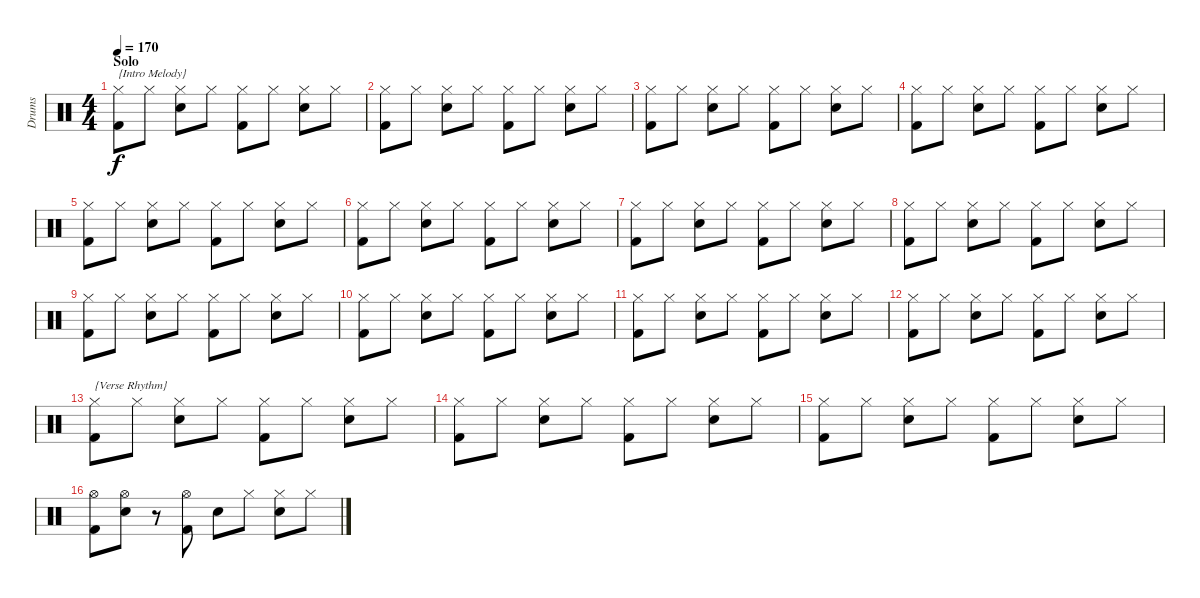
\track ("Drums" "Drums") {instrument percussion}
\staff {score}
\articulation defaults
\ts (4 4)
\section ("" "Solo")
\tempo 170
\clef neutral
\ks c
("Hi-Hat (closed)" "Kick (hit) 2").8{txt "{Intro Melody}" dy f} "Hi-Hat (closed)".8 ("Hi-Hat (closed)" "Snare (hit) 2").8 "Hi-Hat (closed)".8 ("Hi-Hat (closed)" "Kick (hit) 2").8 "Hi-Hat (closed)".8 ("Hi-Hat (closed)" "Snare (hit) 2").8 "Hi-Hat (closed)".8 |
("Hi-Hat (closed)" "Kick (hit) 2").8 "Hi-Hat (closed)".8 ("Hi-Hat (closed)" "Snare (hit) 2").8 "Hi-Hat (closed)".8 ("Hi-Hat (closed)" "Kick (hit) 2").8 "Hi-Hat (closed)".8 ("Hi-Hat (closed)" "Snare (hit) 2").8 "Hi-Hat (closed)".8 |
("Hi-Hat (closed)" "Kick (hit) 2").8 "Hi-Hat (closed)".8 ("Hi-Hat (closed)" "Snare (hit) 2").8 "Hi-Hat (closed)".8 ("Hi-Hat (closed)" "Kick (hit) 2").8 "Hi-Hat (closed)".8 ("Hi-Hat (closed)" "Snare (hit) 2").8 "Hi-Hat (closed)".8 |
("Hi-Hat (closed)" "Kick (hit) 2").8 "Hi-Hat (closed)".8 ("Hi-Hat (closed)" "Snare (hit) 2").8 "Hi-Hat (closed)".8 ("Hi-Hat (closed)" "Kick (hit) 2").8 "Hi-Hat (closed)".8 ("Hi-Hat (closed)" "Snare (hit) 2").8 "Hi-Hat (closed)".8 |
("Hi-Hat (closed)" "Kick (hit) 2").8 "Hi-Hat (closed)".8 ("Hi-Hat (closed)" "Snare (hit) 2").8 "Hi-Hat (closed)".8 ("Hi-Hat (closed)" "Kick (hit) 2").8 "Hi-Hat (closed)".8 ("Hi-Hat (closed)" "Snare (hit) 2").8 "Hi-Hat (closed)".8 |
("Hi-Hat (closed)" "Kick (hit) 2").8 "Hi-Hat (closed)".8 ("Hi-Hat (closed)" "Snare (hit) 2").8 "Hi-Hat (closed)".8 ("Hi-Hat (closed)" "Kick (hit) 2").8 "Hi-Hat (closed)".8 ("Hi-Hat (closed)" "Snare (hit) 2").8 "Hi-Hat (closed)".8 |
("Hi-Hat (closed)" "Kick (hit) 2").8 "Hi-Hat (closed)".8 ("Hi-Hat (closed)" "Snare (hit) 2").8 "Hi-Hat (closed)".8 ("Hi-Hat (closed)" "Kick (hit) 2").8 "Hi-Hat (closed)".8 ("Hi-Hat (closed)" "Snare (hit) 2").8 "Hi-Hat (closed)".8 |
("Hi-Hat (closed)" "Kick (hit) 2").8 "Hi-Hat (closed)".8 ("Hi-Hat (closed)" "Snare (hit) 2").8 "Hi-Hat (closed)".8 ("Hi-Hat (closed)" "Kick (hit) 2").8 "Hi-Hat (closed)".8 ("Hi-Hat (closed)" "Snare (hit) 2").8 "Hi-Hat (closed)".8 |
("Hi-Hat (closed)" "Kick (hit) 2").8 "Hi-Hat (closed)".8 ("Hi-Hat (closed)" "Snare (hit) 2").8 "Hi-Hat (closed)".8 ("Hi-Hat (closed)" "Kick (hit) 2").8 "Hi-Hat (closed)".8 ("Hi-Hat (closed)" "Snare (hit) 2").8 "Hi-Hat (closed)".8 |
("Hi-Hat (closed)" "Kick (hit) 2").8 "Hi-Hat (closed)".8 ("Hi-Hat (closed)" "Snare (hit) 2").8 "Hi-Hat (closed)".8 ("Hi-Hat (closed)" "Kick (hit) 2").8 "Hi-Hat (closed)".8 ("Hi-Hat (closed)" "Snare (hit) 2").8 "Hi-Hat (closed)".8 |
("Hi-Hat (closed)" "Kick (hit) 2").8 "Hi-Hat (closed)".8 ("Hi-Hat (closed)" "Snare (hit) 2").8 "Hi-Hat (closed)".8 ("Hi-Hat (closed)" "Kick (hit) 2").8 "Hi-Hat (closed)".8 ("Hi-Hat (closed)" "Snare (hit) 2").8 "Hi-Hat (closed)".8 |
("Hi-Hat (closed)" "Kick (hit) 2").8 "Hi-Hat (closed)".8 ("Hi-Hat (closed)" "Snare (hit) 2").8 "Hi-Hat (closed)".8 ("Hi-Hat (closed)" "Kick (hit) 2").8 "Hi-Hat (closed)".8 ("Hi-Hat (closed)" "Snare (hit) 2").8 "Hi-Hat (closed)".8 |
("Hi-Hat (closed)" "Kick (hit) 2").8{txt "{Verse Rhythm}"} "Hi-Hat (closed)".8 ("Hi-Hat (closed)" "Snare (hit) 2").8 "Hi-Hat (closed)".8 ("Hi-Hat (closed)" "Kick (hit) 2").8 "Hi-Hat (closed)".8 ("Hi-Hat (closed)" "Snare (hit) 2").8 "Hi-Hat (closed)".8 |
("Hi-Hat (closed)" "Kick (hit) 2").8 "Hi-Hat (closed)".8 ("Hi-Hat (closed)" "Snare (hit) 2").8 "Hi-Hat (closed)".8 ("Hi-Hat (closed)" "Kick (hit) 2").8 "Hi-Hat (closed)".8 ("Hi-Hat (closed)" "Snare (hit) 2").8 "Hi-Hat (closed)".8 |
("Hi-Hat (closed)" "Kick (hit) 2").8 "Hi-Hat (closed)".8 ("Hi-Hat (closed)" "Snare (hit) 2").8 "Hi-Hat (closed)".8 ("Hi-Hat (closed)" "Kick (hit) 2").8 "Hi-Hat (closed)".8 ("Hi-Hat (closed)" "Snare (hit) 2").8 "Hi-Hat (closed)".8 |
("Hi-Hat (open)" "Kick (hit) 2").8 ("Hi-Hat (open)" "Snare (hit) 2").8 r.8 ("Hi-Hat (open)" "Kick (hit) 2").8 "Snare (hit) 2".8 "Hi-Hat (closed)".8 ("Hi-Hat (closed)" "Snare (hit) 2").8 "Hi-Hat (closed)".8
